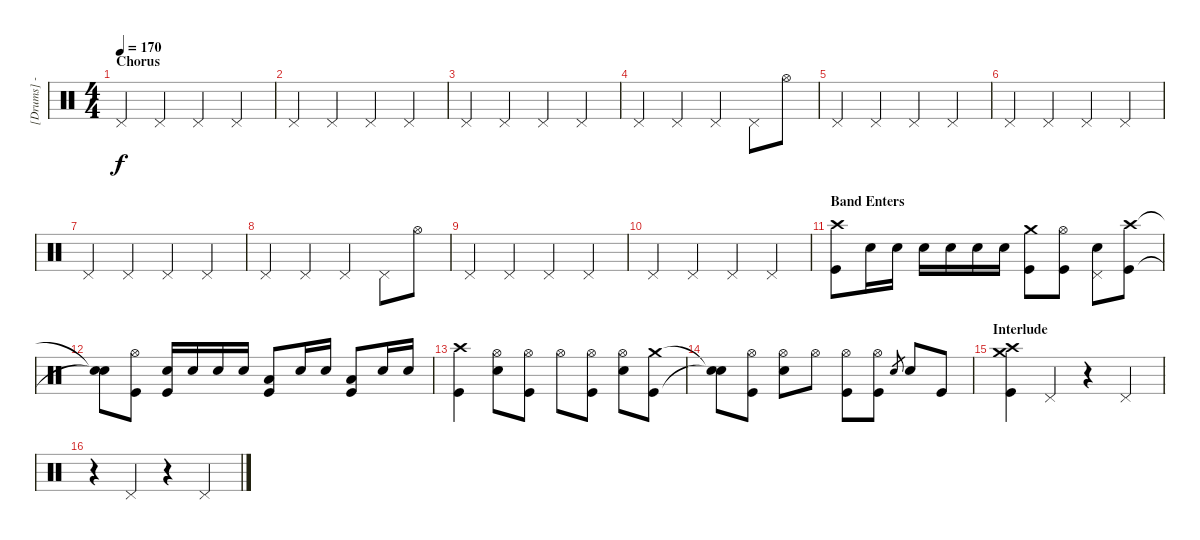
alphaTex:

\track ("[Drums] - Trè Cool" "[Drums] - ") {instrument percussion}
\staff {score}
\articulation defaults
\ts (4 4)
\section ("" "Chorus")
\tempo 170
\clef neutral
\ks c "Pedal Hi-Hat (hit)".4{dy f} "Pedal Hi-Hat (hit)".4 "Pedal Hi-Hat (hit)".4 "Pedal Hi-Hat (hit)".4
|
"Pedal Hi-Hat (hit)".4 "Pedal Hi-Hat (hit)".4 "Pedal Hi-Hat (hit)".4 "Pedal Hi-Hat (hit)".4 |
"Pedal Hi-Hat (hit)".4 "Pedal Hi-Hat (hit)".4 "Pedal Hi-Hat (hit)".4 "Pedal Hi-Hat (hit)".4 |
"Pedal Hi-Hat (hit)".4 "Pedal Hi-Hat (hit)".4 "Pedal Hi-Hat (hit)".4 "Pedal Hi-Hat (hit)".8 "Hi-Hat (open)".8 |
"Pedal Hi-Hat (hit)".4 "Pedal Hi-Hat (hit)".4 "Pedal Hi-Hat (hit)".4 "Pedal Hi-Hat (hit)".4 |
"Pedal Hi-Hat (hit)".4 "Pedal Hi-Hat (hit)".4 "Pedal Hi-Hat (hit)".4 "Pedal Hi-Hat (hit)".4 |
"Pedal Hi-Hat (hit)".4 "Pedal Hi-Hat (hit)".4 "Pedal Hi-Hat (hit)".4 "Pedal Hi-Hat (hit)".4 |
"Pedal Hi-Hat (hit)".4 "Pedal Hi-Hat (hit)".4 "Pedal Hi-Hat (hit)".4 "Pedal Hi-Hat (hit)".8 "Hi-Hat (open)".8 |
"Pedal Hi-Hat (hit)".4 "Pedal Hi-Hat (hit)".4 "Pedal Hi-Hat (hit)".4 "Pedal Hi-Hat (hit)".4 |
"Pedal Hi-Hat (hit)".4 "Pedal Hi-Hat (hit)".4 "Pedal Hi-Hat (hit)".4 "Pedal Hi-Hat (hit)".4 |
\section ("" "Band Enters")
("Kick (hit)" "Crash high (hit)").8 "Snare (hit) 2".16 "Snare (hit) 2".16 "Snare (hit) 2".16 "Snare (hit) 2".16 "Snare (hit) 2".16 "Snare (hit) 2".16 ("Kick (hit)" "Crash medium (hit)").8 ("Kick (hit)" "Hi-Hat (open)").8 ("Snare (hit) 2" "Pedal Hi-Hat (hit)").8 ("Kick (hit)" "Crash high (hit)").8 |
("Snare (hit)"{t} "Snare (hit)"{t}).8 ("Kick (hit)" "Hi-Hat (open)").8 ("Snare (hit) 2" "Kick (hit)").16 "Snare (hit) 2".16 "Snare (hit) 2".16 "Snare (hit) 2".16 ("Low Tom (hit)" "Kick (hit)").8 "Snare (hit) 2".16 "Snare (hit) 2".16 ("Low Floor Tom (hit)" "Kick (hit)").8 "Snare (hit) 2".16 "Snare (hit) 2".16 |
("Kick (hit)" "Crash high (hit)").4 ("Snare (hit) 2" "Hi-Hat (open)").8 ("Kick (hit)" "Hi-Hat (open)").8 "Hi-Hat (open)".8 ("Kick (hit)" "Hi-Hat (open)").8 ("Snare (hit) 2" "Hi-Hat (open)").8 ("Kick (hit)" "Crash medium (hit)").8 |
("Snare (hit)"{t} "Snare (hit)"{t}).8 ("Kick (hit)" "Hi-Hat (open)").8 ("Snare (hit) 2" "Hi-Hat (open)").8 "Hi-Hat (open)".8 ("Kick (hit)" "Hi-Hat (open)").8 ("Kick (hit)" "Hi-Hat (open)").8 "Snare (hit)".8{gr} "Snare (hit) 2".8 "Kick (hit)".8 |
\section ("" "Interlude")
("Kick (hit)" "Crash high (hit)" "Crash medium (hit)").4 "Pedal Hi-Hat (hit)".4 r.4 "Pedal Hi-Hat (hit)".4 |
r.4 "Pedal Hi-Hat (hit)".4 r.4 "Pedal Hi-Hat (hit)".4
